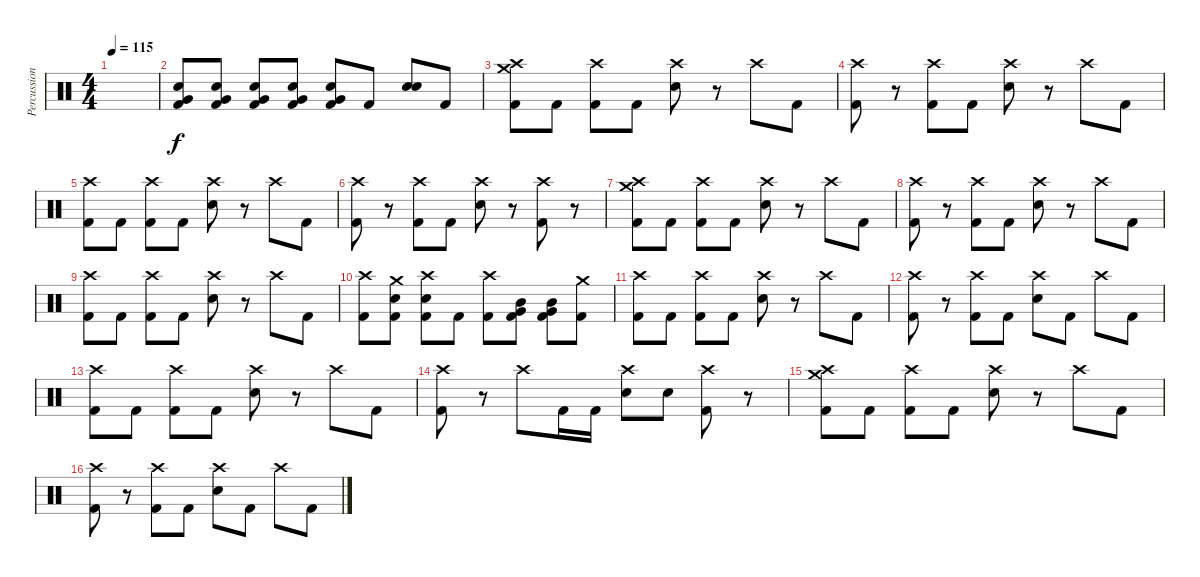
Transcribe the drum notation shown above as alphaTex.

\track ("Percussion" "Percussion") {instrument percussion}
\staff {score}
\articulation defaults
\ts (4 4)
\tempo 115
\clef neutral
\ks c
|
("Kick (hit) 2" "Very Low Tom (hit)" "Electric Snare (hit)").8{volume 8} ("Kick (hit) 2" "Very Low Tom (hit)" "Electric Snare (hit)").8 ("Kick (hit) 2" "Very Low Tom (hit)" "Electric Snare (hit)").8 ("Kick (hit) 2" "Very Low Tom (hit)" "Electric Snare (hit)").8 ("Kick (hit) 2" "Very Low Tom (hit)" "Electric Snare (hit)").8 "Kick (hit) 2".8 ("Electric Snare (hit)" "Electric Snare (hit)").8 "Kick (hit) 2".8 |
("Kick (hit) 2" "Crash medium (hit)" "Crash high (hit)").8 "Kick (hit) 2".8 ("Kick (hit) 2" "Crash high (hit)").8 "Kick (hit) 2".8 ("Electric Snare (hit)" "Crash high (hit)").8 r.8 "Crash high (hit)".8 "Kick (hit) 2".8 |
("Kick (hit) 2" "Crash high (hit)").8 r.8 ("Kick (hit) 2" "Crash high (hit)").8 "Kick (hit) 2".8 ("Electric Snare (hit)" "Crash high (hit)").8 r.8 "Crash high (hit)".8 "Kick (hit) 2".8 |
("Kick (hit) 2" "Crash high (hit)").8 "Kick (hit) 2".8 ("Kick (hit) 2" "Crash high (hit)").8 "Kick (hit) 2".8 ("Electric Snare (hit)" "Crash high (hit)").8 r.8 "Crash high (hit)".8 "Kick (hit) 2".8 |
("Kick (hit) 2" "Crash high (hit)").8 r.8 ("Kick (hit) 2" "Crash high (hit)").8 "Kick (hit) 2".8 ("Electric Snare (hit)" "Crash high (hit)").8 r.8 ("Kick (hit) 2" "Crash high (hit)").8 r.8 |
("Kick (hit) 2" "Crash medium (hit)" "Crash high (hit)").8 "Kick (hit) 2".8 ("Kick (hit) 2" "Crash high (hit)").8 "Kick (hit) 2".8 ("Electric Snare (hit)" "Crash high (hit)").8 r.8 "Crash high (hit)".8 "Kick (hit) 2".8 |
("Kick (hit) 2" "Crash high (hit)").8 r.8 ("Kick (hit) 2" "Crash high (hit)").8 "Kick (hit) 2".8 ("Electric Snare (hit)" "Crash high (hit)").8 r.8 "Crash high (hit)".8 "Kick (hit) 2".8 |
("Kick (hit) 2" "Crash high (hit)").8 "Kick (hit) 2".8 ("Kick (hit) 2" "Crash high (hit)").8 "Kick (hit) 2".8 ("Electric Snare (hit)" "Crash high (hit)").8 r.8 "Crash high (hit)".8 "Kick (hit) 2".8 |
("Kick (hit) 2" "Crash high (hit)").8 ("Kick (hit) 2" "Electric Snare (hit)" "Crash medium (hit)").8 ("Kick (hit) 2" "Electric Snare (hit)" "Crash high (hit)").8 "Kick (hit) 2".8 ("Kick (hit) 2" "Crash high (hit)").8 ("Kick (hit) 2" "Very Low Tom (hit)" "Mid Tom (hit)").8 ("Kick (hit) 2" "Very Low Tom (hit)" "Mid Tom (hit)").8 ("Kick (hit) 2" "Crash medium (hit)").8 |
("Kick (hit) 2" "Crash high (hit)").8 "Kick (hit) 2".8 ("Kick (hit) 2" "Crash high (hit)").8 "Kick (hit) 2".8 ("Electric Snare (hit)" "Crash high (hit)").8 r.8 "Crash high (hit)".8 "Kick (hit) 2".8 |
("Kick (hit) 2" "Crash high (hit)").8 r.8 ("Kick (hit) 2" "Crash high (hit)").8 "Kick (hit) 2".8 ("Electric Snare (hit)" "Crash high (hit)").8 "Kick (hit) 2".8 "Crash high (hit)".8 "Kick (hit) 2".8 |
("Kick (hit) 2" "Crash high (hit)").8 "Kick (hit) 2".8 ("Kick (hit) 2" "Crash high (hit)").8 "Kick (hit) 2".8 ("Electric Snare (hit)" "Crash high (hit)").8 r.8 "Crash high (hit)".8 "Kick (hit) 2".8 |
("Kick (hit) 2" "Crash high (hit)").8 r.8 "Crash high (hit)".8 "Kick (hit) 2".16 "Kick (hit) 2".16 ("Electric Snare (hit)" "Crash high (hit)").8 "Electric Snare (hit)".8 ("Kick (hit) 2" "Crash high (hit)").8 r.8 |
("Kick (hit) 2" "Crash medium (hit)" "Crash high (hit)").8 "Kick (hit) 2".8 ("Kick (hit) 2" "Crash high (hit)").8 "Kick (hit) 2".8 ("Electric Snare (hit)" "Crash high (hit)").8 r.8 "Crash high (hit)".8 "Kick (hit) 2".8 |
("Kick (hit) 2" "Crash high (hit)").8 r.8 ("Kick (hit) 2" "Crash high (hit)").8 "Kick (hit) 2".8 ("Electric Snare (hit)" "Crash high (hit)").8 "Kick (hit) 2".8 "Crash high (hit)".8 "Kick (hit) 2".8
